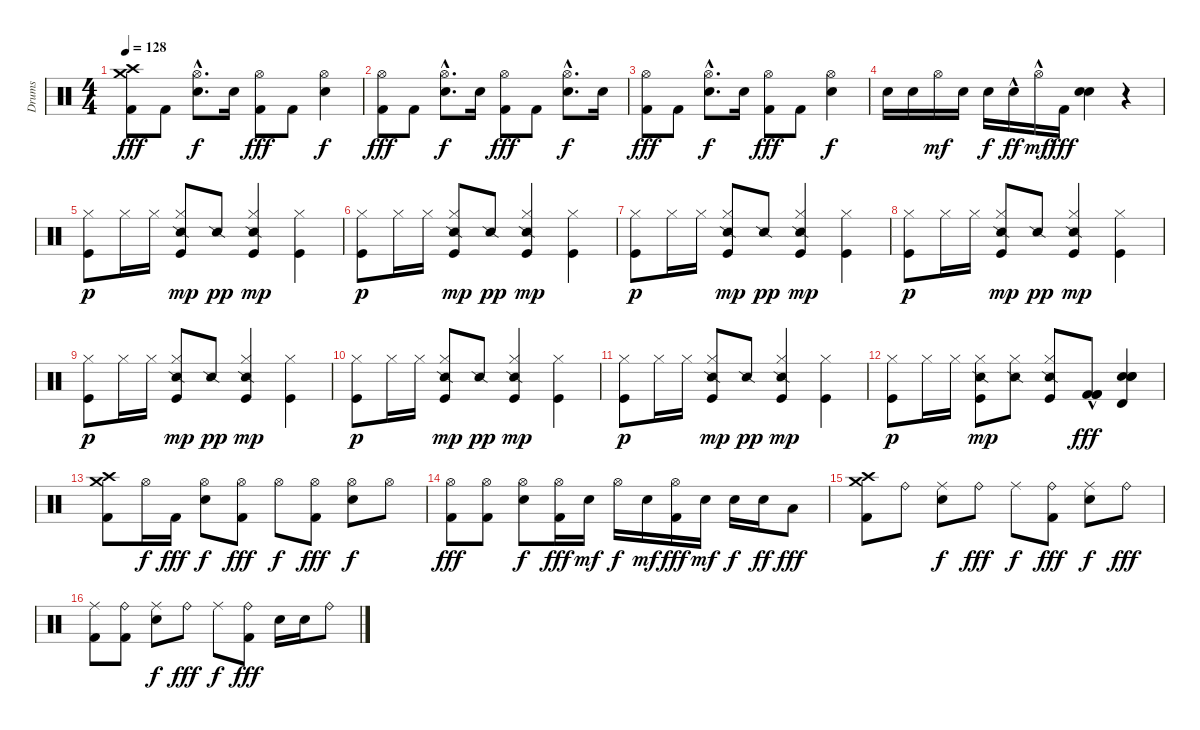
\track ("Drums" "Drums") {instrument percussion}
\staff {score}
\articulation defaults
\ts (4 4)
\tempo 128
\clef neutral
\ks c
("Crash high (hit)" "Crash medium (hit)" "Kick (hit) 2").8{dy fff} "Kick (hit) 2".8 ("Hi-Hat (open)"{hac} "Snare (hit) 2"{hac}).8{d dy f} "Snare (hit) 2".16 ("Hi-Hat (open)" "Kick (hit) 2").8{dy fff} "Kick (hit) 2".8 ("Hi-Hat (open)" "Snare (hit) 2").4{dy f} |
("Hi-Hat (open)" "Kick (hit) 2").8{dy fff} "Kick (hit) 2".8 ("Hi-Hat (open)"{hac} "Snare (hit) 2"{hac}).8{d dy f} "Snare (hit) 2".16 ("Hi-Hat (open)" "Kick (hit) 2").8{dy fff} "Kick (hit) 2".8 ("Hi-Hat (open)" "Snare (hit) 2"{hac}).8{d dy f} "Snare (hit) 2".16 |
("Hi-Hat (open)" "Kick (hit) 2").8{dy fff} "Kick (hit) 2".8 ("Hi-Hat (open)"{hac} "Snare (hit) 2"{hac}).8{d dy f} "Snare (hit) 2".16 ("Hi-Hat (open)" "Kick (hit) 2").8{dy fff} "Kick (hit) 2".8 ("Hi-Hat (open)" "Snare (hit) 2").4{dy f} |
"Snare (hit) 2".16 "Snare (hit) 2".16 "Hi-Hat (open)".16{dy mf} "Snare (hit) 2".16 "Snare (hit) 2".16{dy f} "Snare (hit) 2"{hac}.16{dy ff} "Hi-Hat (open)"{hac}.16{dy mf} "Kick (hit) 2".16{dy fff} ("Snare (hit) 2" "Electric Snare (hit)").4 r.4 |
("Kick (hit)" "Hi-Hat (closed)").8{dy p} "Hi-Hat (closed)".16 "Hi-Hat (closed)".16 ("Kick (hit)" "Snare (side stick) 2" "Hi-Hat (closed)").8{dy mp} "Snare (side stick) 2".8{dy pp} ("Kick (hit)" "Snare (side stick) 2" "Hi-Hat (closed)").4{dy mp} ("Kick (hit)" "Hi-Hat (closed)").4 |
("Kick (hit)" "Hi-Hat (closed)").8{dy p} "Hi-Hat (closed)".16 "Hi-Hat (closed)".16 ("Kick (hit)" "Snare (side stick) 2" "Hi-Hat (closed)").8{dy mp} "Snare (side stick) 2".8{dy pp} ("Kick (hit)" "Snare (side stick) 2" "Hi-Hat (closed)").4{dy mp} ("Kick (hit)" "Hi-Hat (closed)").4 |
("Kick (hit)" "Hi-Hat (closed)").8{dy p} "Hi-Hat (closed)".16 "Hi-Hat (closed)".16 ("Kick (hit)" "Snare (side stick) 2" "Hi-Hat (closed)").8{dy mp} "Snare (side stick) 2".8{dy pp} ("Kick (hit)" "Snare (side stick) 2" "Hi-Hat (closed)").4{dy mp} ("Kick (hit)" "Hi-Hat (closed)").4 |
("Kick (hit)" "Hi-Hat (closed)").8{dy p} "Hi-Hat (closed)".16 "Hi-Hat (closed)".16 ("Kick (hit)" "Snare (side stick) 2" "Hi-Hat (closed)").8{dy mp} "Snare (side stick) 2".8{dy pp} ("Kick (hit)" "Snare (side stick) 2" "Hi-Hat (closed)").4{dy mp} ("Kick (hit)" "Hi-Hat (closed)").4 |
("Kick (hit)" "Hi-Hat (closed)").8{dy p} "Hi-Hat (closed)".16 "Hi-Hat (closed)".16 ("Kick (hit)" "Snare (side stick) 2" "Hi-Hat (closed)").8{dy mp} "Snare (side stick) 2".8{dy pp} ("Kick (hit)" "Snare (side stick) 2" "Hi-Hat (closed)").4{dy mp} ("Kick (hit)" "Hi-Hat (closed)").4 |
("Kick (hit)" "Hi-Hat (closed)").8{dy p} "Hi-Hat (closed)".16 "Hi-Hat (closed)".16 ("Kick (hit)" "Snare (side stick) 2" "Hi-Hat (closed)").8{dy mp} "Snare (side stick) 2".8{dy pp} ("Kick (hit)" "Snare (side stick) 2" "Hi-Hat (closed)").4{dy mp} ("Kick (hit)" "Hi-Hat (closed)").4 |
("Kick (hit)" "Hi-Hat (closed)").8{dy p} "Hi-Hat (closed)".16 "Hi-Hat (closed)".16 ("Kick (hit)" "Snare (side stick) 2" "Hi-Hat (closed)").8{dy mp} "Snare (side stick) 2".8{dy pp} ("Kick (hit)" "Snare (side stick) 2" "Hi-Hat (closed)").4{dy mp} ("Kick (hit)" "Hi-Hat (closed)").4 |
("Kick (hit)" "Hi-Hat (closed)").8{dy p} "Hi-Hat (closed)".16 "Hi-Hat (closed)".16 ("Kick (hit)" "Snare (side stick) 2" "Hi-Hat (closed)").8{dy mp} ("Snare (side stick) 2" "Hi-Hat (closed)").8 ("Kick (hit)" "Snare (side stick) 2" "Hi-Hat (closed)").8 ("Kick (hit) 2"{hac} "Kick (hit) 2"{hac} "Kick (hit) 2"{hac}).8{dy fff} ("Snare (hit) 2" "Electric Snare (hit)" "Timbale high (hit)" "Electric Snare (hit)").4 |
("Crash high (hit)" "Crash medium (hit)" "Kick (hit) 2").8 "Hi-Hat (open)".16{dy f} "Kick (hit) 2".16{dy fff} ("Hi-Hat (open)" "Snare (hit) 2").8{dy f} ("Hi-Hat (open)" "Kick (hit) 2").8{dy fff} "Hi-Hat (open)".8{dy f} ("Hi-Hat (open)" "Kick (hit) 2").8{dy fff} ("Hi-Hat (open)" "Snare (hit) 2").8{dy f} "Hi-Hat (open)".8 |
("Hi-Hat (open)" "Kick (hit) 2").8{dy fff} ("Hi-Hat (open)" "Kick (hit) 2").8 ("Hi-Hat (open)" "Snare (hit) 2").8{dy f} ("Hi-Hat (open)" "Kick (hit) 2").16{dy fff} "Snare (hit) 2".16{dy mf} "Hi-Hat (open)".16{dy f} "Snare (hit) 2".16{dy mf} ("Hi-Hat (open)" "Kick (hit) 2").16{dy fff} "Snare (hit) 2".16{dy mf} "Snare (hit) 2".16{dy f} "Snare (hit) 2".16{dy ff} "Low Tom (hit)".8{dy fff} |
("Crash high (hit)" "Crash medium (hit)" "Kick (hit) 2").8 "Ride (bell)".8 ("Ride (middle)" "Snare (hit) 2").8{dy f} "Ride (bell)".8{dy fff} "Ride (middle)".8{dy f} ("Ride (bell)" "Kick (hit) 2").8{dy fff} ("Ride (middle)" "Snare (hit) 2").8{dy f} "Ride (bell)".8{dy fff} |
("Ride (middle)" "Kick (hit) 2").8 ("Ride (bell)" "Kick (hit) 2").8 ("Ride (middle)" "Snare (hit) 2").8{dy f} "Ride (bell)".8{dy fff} "Ride (middle)".8{dy f} ("Ride (bell)" "Kick (hit) 2").8{dy fff} "Snare (hit) 2".16 "Snare (hit) 2".16 "Ride (bell)".8
